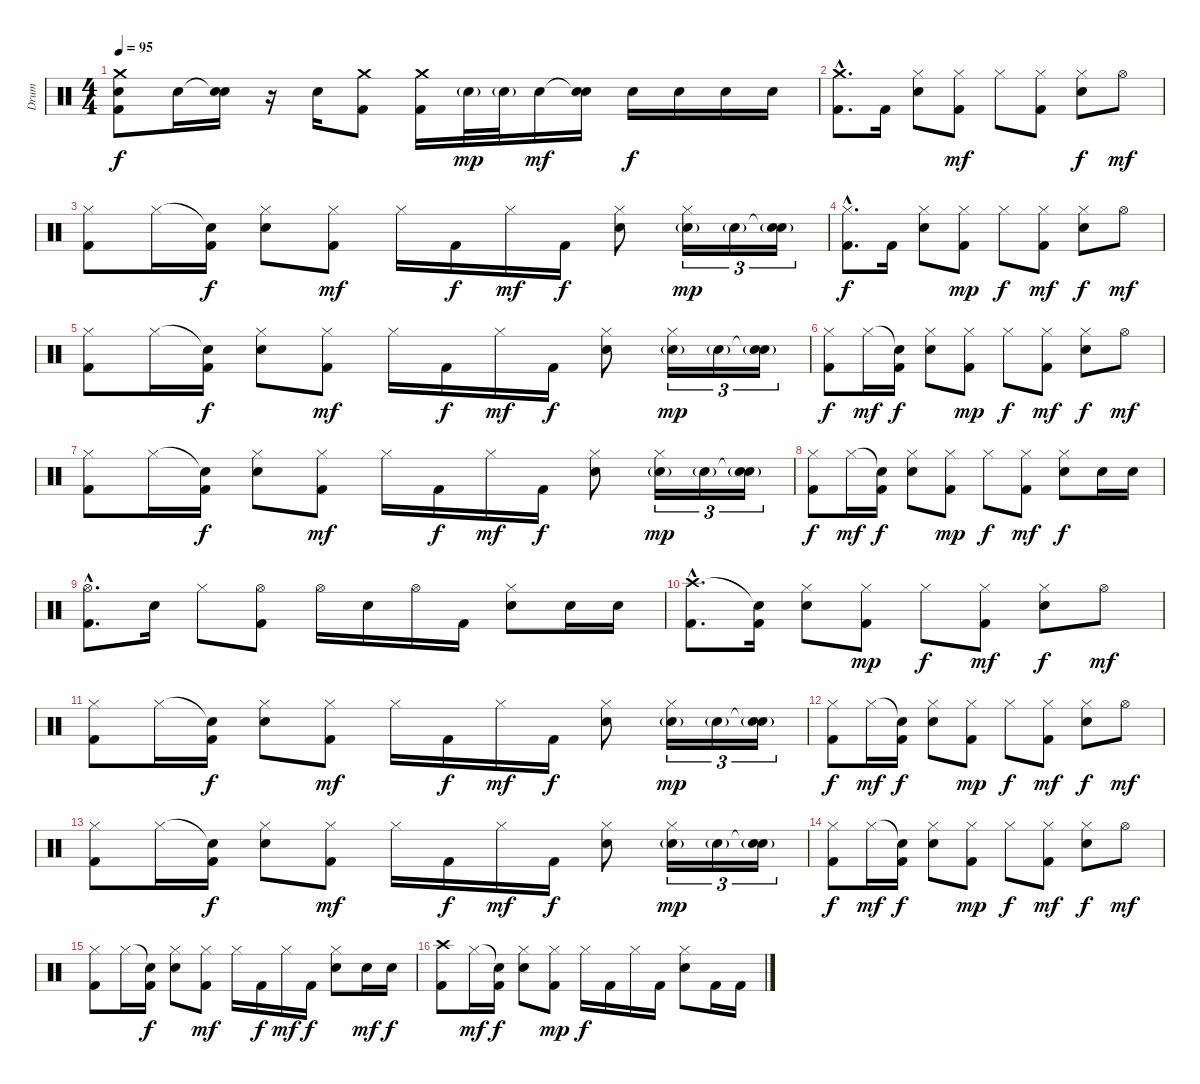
\track ("Drum" "Drum") {instrument percussion}
\staff {score}
\articulation defaults
\ts (4 4)
\tempo 95
\clef neutral
\ks c
("Crash medium (hit)" "Electric Snare (hit)" "Kick (hit) 2").8{dy f} "Electric Snare (hit)".16 ("Snare (hit)"{t} "Electric Snare (hit)").16 r.16 "Electric Snare (hit)".16 ("Crash medium (hit)" "Kick (hit) 2").8 ("Crash medium (hit)" "Kick (hit) 2").16 "Electric Snare (hit)"{g}.32{dy mp} "Electric Snare (hit)"{g}.32 "Electric Snare (hit)".16{dy mf} ("Snare (hit)"{t} "Electric Snare (hit)").16 "Electric Snare (hit)".16{dy f} "Electric Snare (hit)".16 "Electric Snare (hit)".16 "Electric Snare (hit)".16 |
("Crash medium (hit)"{hac} "Kick (hit) 2"{hac}).8{d} "Kick (hit) 2".16 ("Hi-Hat (closed)" "Electric Snare (hit)").8 ("Hi-Hat (closed)" "Kick (hit) 2").8{dy mf} "Hi-Hat (closed)".8 ("Hi-Hat (closed)" "Kick (hit) 2").8 ("Hi-Hat (closed)" "Electric Snare (hit)").8{dy f} "Hi-Hat (open)".8{dy mf} |
("Hi-Hat (closed)" "Kick (hit) 2").8 "Hi-Hat (closed)".16 ("Snare (hit)"{t} "Kick (hit) 2").16{dy f} ("Hi-Hat (closed)" "Electric Snare (hit)").8 ("Hi-Hat (closed)" "Kick (hit) 2").8{dy mf} "Hi-Hat (closed)".16 "Kick (hit) 2".16{dy f} "Hi-Hat (closed)".16{dy mf} "Kick (hit) 2".16{dy f} ("Hi-Hat (closed)" "Electric Snare (hit)").8 ("Hi-Hat (closed)" "Electric Snare (hit)"{g}).16{tu (3 2) dy mp} "Electric Snare (hit)"{g}.16{tu (3 2)} ("Snare (hit)"{t} "Electric Snare (hit)"{g}).16{tu (3 2)} |
("Hi-Hat (closed)"{hac} "Kick (hit) 2"{hac}).8{d dy f} "Kick (hit) 2".16 ("Hi-Hat (closed)" "Electric Snare (hit)").8 ("Hi-Hat (closed)" "Kick (hit) 2").8{dy mp} "Hi-Hat (closed)".8{dy f} ("Hi-Hat (closed)" "Kick (hit) 2").8{dy mf} ("Hi-Hat (closed)" "Electric Snare (hit)").8{dy f} "Hi-Hat (open)".8{dy mf} |
("Hi-Hat (closed)" "Kick (hit) 2").8 "Hi-Hat (closed)".16 ("Snare (hit)"{t} "Kick (hit) 2").16{dy f} ("Hi-Hat (closed)" "Electric Snare (hit)").8 ("Hi-Hat (closed)" "Kick (hit) 2").8{dy mf} "Hi-Hat (closed)".16 "Kick (hit) 2".16{dy f} "Hi-Hat (closed)".16{dy mf} "Kick (hit) 2".16{dy f} ("Hi-Hat (closed)" "Electric Snare (hit)").8 ("Hi-Hat (closed)" "Electric Snare (hit)"{g}).16{tu (3 2) dy mp} "Electric Snare (hit)"{g}.16{tu (3 2)} ("Snare (hit)"{t} "Electric Snare (hit)"{g}).16{tu (3 2)} |
("Hi-Hat (closed)" "Kick (hit) 2").8{dy f} "Hi-Hat (closed)".16{dy mf} ("Snare (hit)"{t} "Kick (hit) 2").16{dy f} ("Hi-Hat (closed)" "Electric Snare (hit)").8 ("Hi-Hat (closed)" "Kick (hit) 2").8{dy mp} "Hi-Hat (closed)".8{dy f} ("Hi-Hat (closed)" "Kick (hit) 2").8{dy mf} ("Hi-Hat (closed)" "Electric Snare (hit)").8{dy f} "Hi-Hat (open)".8{dy mf} |
("Hi-Hat (closed)" "Kick (hit) 2").8 "Hi-Hat (closed)".16 ("Snare (hit)"{t} "Kick (hit) 2").16{dy f} ("Hi-Hat (closed)" "Electric Snare (hit)").8 ("Hi-Hat (closed)" "Kick (hit) 2").8{dy mf} "Hi-Hat (closed)".16 "Kick (hit) 2".16{dy f} "Hi-Hat (closed)".16{dy mf} "Kick (hit) 2".16{dy f} ("Hi-Hat (closed)" "Electric Snare (hit)").8 ("Hi-Hat (closed)" "Electric Snare (hit)"{g}).16{tu (3 2) dy mp} "Electric Snare (hit)"{g}.16{tu (3 2)} ("Snare (hit)"{t} "Electric Snare (hit)"{g}).16{tu (3 2)} |
("Hi-Hat (closed)" "Kick (hit) 2").8{dy f} "Hi-Hat (closed)".16{dy mf} ("Snare (hit)"{t} "Kick (hit) 2").16{dy f} ("Hi-Hat (closed)" "Electric Snare (hit)").8 ("Hi-Hat (closed)" "Kick (hit) 2").8{dy mp} "Hi-Hat (closed)".8{dy f} ("Hi-Hat (closed)" "Kick (hit) 2").8{dy mf} ("Hi-Hat (closed)" "Electric Snare (hit)").8{dy f} "Electric Snare (hit)".16 "Electric Snare (hit)".16 |
("Hi-Hat (open)"{hac} "Kick (hit) 2"{hac}).8{d} "Electric Snare (hit)".16 "Hi-Hat (closed)".8 ("Hi-Hat (open)" "Kick (hit) 2").8 "Hi-Hat (open)".16 "Electric Snare (hit)".16 "Hi-Hat (open)".16 "Kick (hit) 2".16 ("Electric Snare (hit)" "Hi-Hat (closed)").8 "Electric Snare (hit)".16 "Electric Snare (hit)".16 |
("Crash high (hit)"{hac} "Kick (hit) 2"{hac}).8{d} ("Snare (hit)"{t} "Kick (hit) 2").16 ("Hi-Hat (closed)" "Electric Snare (hit)").8 ("Hi-Hat (closed)" "Kick (hit) 2").8{dy mp} "Hi-Hat (closed)".8{dy f} ("Hi-Hat (closed)" "Kick (hit) 2").8{dy mf} ("Hi-Hat (closed)" "Electric Snare (hit)").8{dy f} "Hi-Hat (open)".8{dy mf} |
("Hi-Hat (closed)" "Kick (hit) 2").8 "Hi-Hat (closed)".16 ("Snare (hit)"{t} "Kick (hit) 2").16{dy f} ("Hi-Hat (closed)" "Electric Snare (hit)").8 ("Hi-Hat (closed)" "Kick (hit) 2").8{dy mf} "Hi-Hat (closed)".16 "Kick (hit) 2".16{dy f} "Hi-Hat (closed)".16{dy mf} "Kick (hit) 2".16{dy f} ("Hi-Hat (closed)" "Electric Snare (hit)").8 ("Hi-Hat (closed)" "Electric Snare (hit)"{g}).16{tu (3 2) dy mp} "Electric Snare (hit)"{g}.16{tu (3 2)} ("Snare (hit)"{t} "Electric Snare (hit)"{g}).16{tu (3 2)} |
("Hi-Hat (closed)" "Kick (hit) 2").8{dy f} "Hi-Hat (closed)".16{dy mf} ("Snare (hit)"{t} "Kick (hit) 2").16{dy f} ("Hi-Hat (closed)" "Electric Snare (hit)").8 ("Hi-Hat (closed)" "Kick (hit) 2").8{dy mp} "Hi-Hat (closed)".8{dy f} ("Hi-Hat (closed)" "Kick (hit) 2").8{dy mf} ("Hi-Hat (closed)" "Electric Snare (hit)").8{dy f} "Hi-Hat (open)".8{dy mf} |
("Hi-Hat (closed)" "Kick (hit) 2").8 "Hi-Hat (closed)".16 ("Snare (hit)"{t} "Kick (hit) 2").16{dy f} ("Hi-Hat (closed)" "Electric Snare (hit)").8 ("Hi-Hat (closed)" "Kick (hit) 2").8{dy mf} "Hi-Hat (closed)".16 "Kick (hit) 2".16{dy f} "Hi-Hat (closed)".16{dy mf} "Kick (hit) 2".16{dy f} ("Hi-Hat (closed)" "Electric Snare (hit)").8 ("Hi-Hat (closed)" "Electric Snare (hit)"{g}).16{tu (3 2) dy mp} "Electric Snare (hit)"{g}.16{tu (3 2)} ("Snare (hit)"{t} "Electric Snare (hit)"{g}).16{tu (3 2)} |
("Hi-Hat (closed)" "Kick (hit) 2").8{dy f} "Hi-Hat (closed)".16{dy mf} ("Snare (hit)"{t} "Kick (hit) 2").16{dy f} ("Hi-Hat (closed)" "Electric Snare (hit)").8 ("Hi-Hat (closed)" "Kick (hit) 2").8{dy mp} "Hi-Hat (closed)".8{dy f} ("Hi-Hat (closed)" "Kick (hit) 2").8{dy mf} ("Hi-Hat (closed)" "Electric Snare (hit)").8{dy f} "Hi-Hat (open)".8{dy mf} |
("Hi-Hat (closed)" "Kick (hit) 2").8 "Hi-Hat (closed)".16 ("Snare (hit)"{t} "Kick (hit) 2").16{dy f} ("Hi-Hat (closed)" "Electric Snare (hit)").8 ("Hi-Hat (closed)" "Kick (hit) 2").8{dy mf} "Hi-Hat (closed)".16 "Kick (hit) 2".16{dy f} "Hi-Hat (closed)".16{dy mf} "Kick (hit) 2".16{dy f} ("Hi-Hat (closed)" "Electric Snare (hit)").8 "Electric Snare (hit)".16{dy mf} "Electric Snare (hit)".16{dy f} |
("Crash high (hit)" "Kick (hit) 2").8 "Hi-Hat (closed)".16{dy mf} ("Snare (hit)"{t} "Kick (hit) 2").16{dy f} ("Hi-Hat (closed)" "Electric Snare (hit)").8 ("Hi-Hat (closed)" "Kick (hit) 2").8{dy mp} "Hi-Hat (closed)".16{dy f} "Kick (hit) 2".16 "Hi-Hat (closed)".16 "Kick (hit) 2".16 ("Hi-Hat (closed)" "Electric Snare (hit)").8 "Kick (hit) 2".16 "Kick (hit) 2".16
